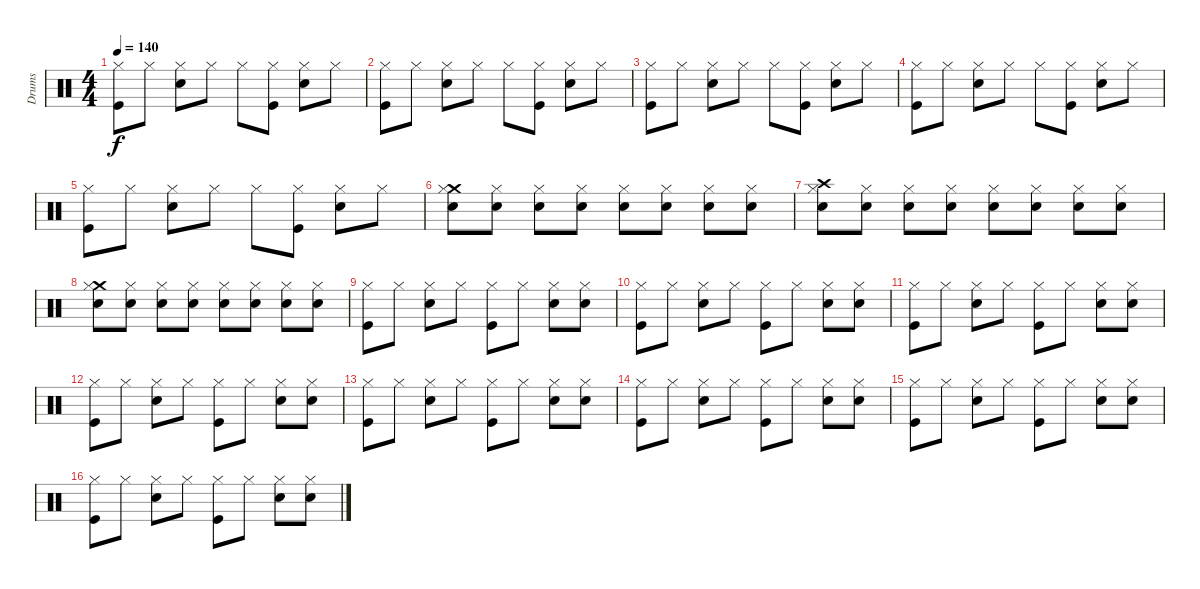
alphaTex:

\track ("Drums" "Drums") {instrument percussion}
\staff {score}
\articulation defaults
\ts (4 4)
\tempo 140
\clef neutral
\ks c
("Hi-Hat (closed)" "Kick (hit)").8{dy f} "Hi-Hat (closed)".8 ("Hi-Hat (closed)" "Electric Snare (hit)").8 "Hi-Hat (closed)".8 "Hi-Hat (closed)".8 ("Hi-Hat (closed)" "Kick (hit)").8 ("Hi-Hat (closed)" "Electric Snare (hit)").8 "Hi-Hat (closed)".8 |
("Hi-Hat (closed)" "Kick (hit)").8 "Hi-Hat (closed)".8 ("Hi-Hat (closed)" "Electric Snare (hit)").8 "Hi-Hat (closed)".8 "Hi-Hat (closed)".8 ("Hi-Hat (closed)" "Kick (hit)").8 ("Hi-Hat (closed)" "Electric Snare (hit)").8 "Hi-Hat (closed)".8 |
("Hi-Hat (closed)" "Kick (hit)").8 "Hi-Hat (closed)".8 ("Hi-Hat (closed)" "Electric Snare (hit)").8 "Hi-Hat (closed)".8 "Hi-Hat (closed)".8 ("Hi-Hat (closed)" "Kick (hit)").8 ("Hi-Hat (closed)" "Electric Snare (hit)").8 "Hi-Hat (closed)".8 |
("Hi-Hat (closed)" "Kick (hit)").8 "Hi-Hat (closed)".8 ("Hi-Hat (closed)" "Electric Snare (hit)").8 "Hi-Hat (closed)".8 "Hi-Hat (closed)".8 ("Hi-Hat (closed)" "Kick (hit)").8 ("Hi-Hat (closed)" "Electric Snare (hit)").8 "Hi-Hat (closed)".8 |
("Hi-Hat (closed)" "Kick (hit)").8 "Hi-Hat (closed)".8 ("Hi-Hat (closed)" "Electric Snare (hit)").8 "Hi-Hat (closed)".8 "Hi-Hat (closed)".8 ("Hi-Hat (closed)" "Kick (hit)").8 ("Hi-Hat (closed)" "Electric Snare (hit)").8 "Hi-Hat (closed)".8 |
("Crash medium (hit)" "Hi-Hat (closed)" "Electric Snare (hit)").8 ("Hi-Hat (closed)" "Electric Snare (hit)").8 ("Hi-Hat (closed)" "Electric Snare (hit)").8 ("Hi-Hat (closed)" "Electric Snare (hit)").8 ("Hi-Hat (closed)" "Electric Snare (hit)").8 ("Hi-Hat (closed)" "Electric Snare (hit)").8 ("Hi-Hat (closed)" "Electric Snare (hit)").8 ("Hi-Hat (closed)" "Electric Snare (hit)").8 |
("Crash high (hit)" "Hi-Hat (closed)" "Electric Snare (hit)").8 ("Hi-Hat (closed)" "Electric Snare (hit)").8 ("Hi-Hat (closed)" "Electric Snare (hit)").8 ("Hi-Hat (closed)" "Electric Snare (hit)").8 ("Hi-Hat (closed)" "Electric Snare (hit)").8 ("Hi-Hat (closed)" "Electric Snare (hit)").8 ("Hi-Hat (closed)" "Electric Snare (hit)").8 ("Hi-Hat (closed)" "Electric Snare (hit)").8 |
("Crash medium (hit)" "Hi-Hat (closed)" "Electric Snare (hit)").8 ("Hi-Hat (closed)" "Electric Snare (hit)").8 ("Hi-Hat (closed)" "Electric Snare (hit)").8 ("Hi-Hat (closed)" "Electric Snare (hit)").8 ("Hi-Hat (closed)" "Electric Snare (hit)").8 ("Hi-Hat (closed)" "Electric Snare (hit)").8 ("Hi-Hat (closed)" "Electric Snare (hit)").8 ("Hi-Hat (closed)" "Electric Snare (hit)").8 |
("Hi-Hat (closed)" "Kick (hit)").8 "Hi-Hat (closed)".8 ("Hi-Hat (closed)" "Electric Snare (hit)").8 "Hi-Hat (closed)".8 ("Hi-Hat (closed)" "Kick (hit)").8 "Hi-Hat (closed)".8 ("Hi-Hat (closed)" "Electric Snare (hit)").8 ("Hi-Hat (closed)" "Electric Snare (hit)").8 |
("Hi-Hat (closed)" "Kick (hit)").8 "Hi-Hat (closed)".8 ("Hi-Hat (closed)" "Electric Snare (hit)").8 "Hi-Hat (closed)".8 ("Hi-Hat (closed)" "Kick (hit)").8 "Hi-Hat (closed)".8 ("Hi-Hat (closed)" "Electric Snare (hit)").8 ("Hi-Hat (closed)" "Electric Snare (hit)").8 |
("Hi-Hat (closed)" "Kick (hit)").8 "Hi-Hat (closed)".8 ("Hi-Hat (closed)" "Electric Snare (hit)").8 "Hi-Hat (closed)".8 ("Hi-Hat (closed)" "Kick (hit)").8 "Hi-Hat (closed)".8 ("Hi-Hat (closed)" "Electric Snare (hit)").8 ("Hi-Hat (closed)" "Electric Snare (hit)").8 |
("Hi-Hat (closed)" "Kick (hit)").8 "Hi-Hat (closed)".8 ("Hi-Hat (closed)" "Electric Snare (hit)").8 "Hi-Hat (closed)".8 ("Hi-Hat (closed)" "Kick (hit)").8 "Hi-Hat (closed)".8 ("Hi-Hat (closed)" "Electric Snare (hit)").8 ("Hi-Hat (closed)" "Electric Snare (hit)").8 |
("Hi-Hat (closed)" "Kick (hit)").8 "Hi-Hat (closed)".8 ("Hi-Hat (closed)" "Electric Snare (hit)").8 "Hi-Hat (closed)".8 ("Hi-Hat (closed)" "Kick (hit)").8 "Hi-Hat (closed)".8 ("Hi-Hat (closed)" "Electric Snare (hit)").8 ("Hi-Hat (closed)" "Electric Snare (hit)").8 |
("Hi-Hat (closed)" "Kick (hit)").8 "Hi-Hat (closed)".8 ("Hi-Hat (closed)" "Electric Snare (hit)").8 "Hi-Hat (closed)".8 ("Hi-Hat (closed)" "Kick (hit)").8 "Hi-Hat (closed)".8 ("Hi-Hat (closed)" "Electric Snare (hit)").8 ("Hi-Hat (closed)" "Electric Snare (hit)").8 |
("Hi-Hat (closed)" "Kick (hit)").8 "Hi-Hat (closed)".8 ("Hi-Hat (closed)" "Electric Snare (hit)").8 "Hi-Hat (closed)".8 ("Hi-Hat (closed)" "Kick (hit)").8 "Hi-Hat (closed)".8 ("Hi-Hat (closed)" "Electric Snare (hit)").8 ("Hi-Hat (closed)" "Electric Snare (hit)").8 |
("Hi-Hat (closed)" "Kick (hit)").8 "Hi-Hat (closed)".8 ("Hi-Hat (closed)" "Electric Snare (hit)").8 "Hi-Hat (closed)".8 ("Hi-Hat (closed)" "Kick (hit)").8 "Hi-Hat (closed)".8 ("Hi-Hat (closed)" "Electric Snare (hit)").8 ("Hi-Hat (closed)" "Electric Snare (hit)").8
